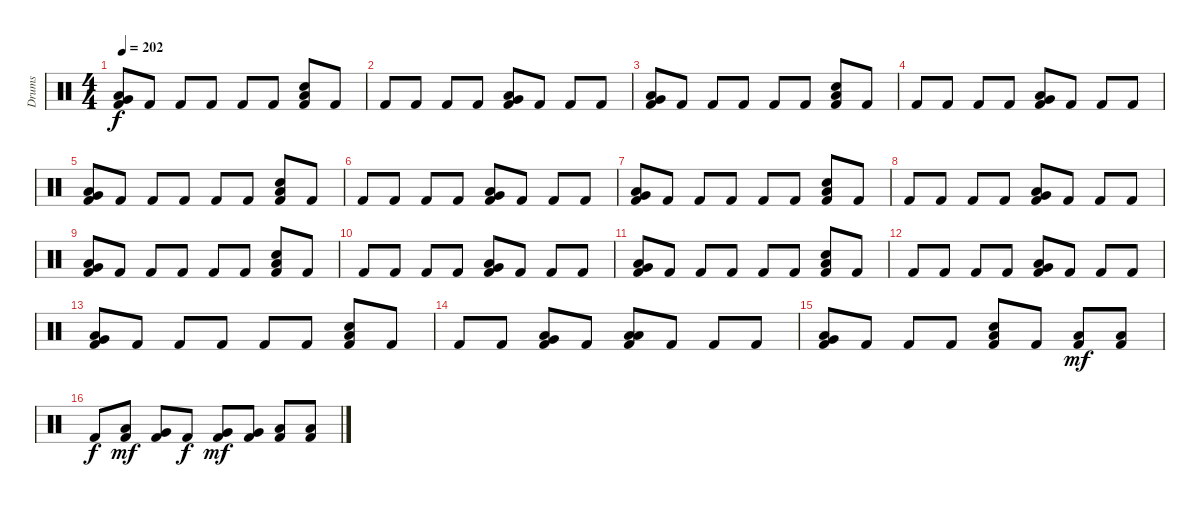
\track ("Drums" "Drums") {instrument percussion}
\staff {score}
\articulation defaults
\ts (4 4)
\tempo 202
\clef neutral
\ks c
("Very Low Tom (hit)" "Low Floor Tom (hit)" "Kick (hit) 2").8{dy f} "Kick (hit) 2".8 "Kick (hit) 2".8 "Kick (hit) 2".8 "Kick (hit) 2".8 "Kick (hit) 2".8 ("Low Tom (hit)" "Snare (hit) 2" "Kick (hit) 2").8 "Kick (hit) 2".8 |
"Kick (hit) 2".8 "Kick (hit) 2".8 "Kick (hit) 2".8 "Kick (hit) 2".8 ("Low Tom (hit)" "Very Low Tom (hit)" "Kick (hit) 2").8 "Kick (hit) 2".8 "Kick (hit) 2".8 "Kick (hit) 2".8 |
("Very Low Tom (hit)" "Low Floor Tom (hit)" "Kick (hit) 2").8 "Kick (hit) 2".8 "Kick (hit) 2".8 "Kick (hit) 2".8 "Kick (hit) 2".8 "Kick (hit) 2".8 ("Low Tom (hit)" "Snare (hit) 2" "Kick (hit) 2").8 "Kick (hit) 2".8 |
"Kick (hit) 2".8 "Kick (hit) 2".8 "Kick (hit) 2".8 "Kick (hit) 2".8 ("Low Tom (hit)" "Very Low Tom (hit)" "Kick (hit) 2").8 "Kick (hit) 2".8 "Kick (hit) 2".8 "Kick (hit) 2".8 |
("Very Low Tom (hit)" "Low Floor Tom (hit)" "Kick (hit) 2").8 "Kick (hit) 2".8 "Kick (hit) 2".8 "Kick (hit) 2".8 "Kick (hit) 2".8 "Kick (hit) 2".8 ("Low Tom (hit)" "Snare (hit) 2" "Kick (hit) 2").8 "Kick (hit) 2".8 |
"Kick (hit) 2".8 "Kick (hit) 2".8 "Kick (hit) 2".8 "Kick (hit) 2".8 ("Low Tom (hit)" "Very Low Tom (hit)" "Kick (hit) 2").8 "Kick (hit) 2".8 "Kick (hit) 2".8 "Kick (hit) 2".8 |
("Very Low Tom (hit)" "Low Floor Tom (hit)" "Kick (hit) 2").8 "Kick (hit) 2".8 "Kick (hit) 2".8 "Kick (hit) 2".8 "Kick (hit) 2".8 "Kick (hit) 2".8 ("Low Tom (hit)" "Snare (hit) 2" "Kick (hit) 2").8 "Kick (hit) 2".8 |
"Kick (hit) 2".8 "Kick (hit) 2".8 "Kick (hit) 2".8 "Kick (hit) 2".8 ("Low Tom (hit)" "Very Low Tom (hit)" "Kick (hit) 2").8 "Kick (hit) 2".8 "Kick (hit) 2".8 "Kick (hit) 2".8 |
("Very Low Tom (hit)" "Low Floor Tom (hit)" "Kick (hit) 2").8 "Kick (hit) 2".8 "Kick (hit) 2".8 "Kick (hit) 2".8 "Kick (hit) 2".8 "Kick (hit) 2".8 ("Low Tom (hit)" "Snare (hit) 2" "Kick (hit) 2").8 "Kick (hit) 2".8 |
"Kick (hit) 2".8 "Kick (hit) 2".8 "Kick (hit) 2".8 "Kick (hit) 2".8 ("Low Tom (hit)" "Very Low Tom (hit)" "Kick (hit) 2").8 "Kick (hit) 2".8 "Kick (hit) 2".8 "Kick (hit) 2".8 |
("Very Low Tom (hit)" "Low Floor Tom (hit)" "Kick (hit) 2").8 "Kick (hit) 2".8 "Kick (hit) 2".8 "Kick (hit) 2".8 "Kick (hit) 2".8 "Kick (hit) 2".8 ("Low Tom (hit)" "Snare (hit) 2" "Kick (hit) 2").8 "Kick (hit) 2".8 |
"Kick (hit) 2".8 "Kick (hit) 2".8 "Kick (hit) 2".8 "Kick (hit) 2".8 ("Low Tom (hit)" "Very Low Tom (hit)" "Kick (hit) 2").8 "Kick (hit) 2".8 "Kick (hit) 2".8 "Kick (hit) 2".8 |
("Very Low Tom (hit)" "Low Floor Tom (hit)" "Kick (hit) 2").8 "Kick (hit) 2".8 "Kick (hit) 2".8 "Kick (hit) 2".8 "Kick (hit) 2".8 "Kick (hit) 2".8 ("Low Tom (hit)" "Snare (hit) 2" "Kick (hit) 2").8 "Kick (hit) 2".8 |
"Kick (hit) 2".8 "Kick (hit) 2".8 ("Low Tom (hit)" "Very Low Tom (hit)" "Kick (hit) 2").8 "Kick (hit) 2".8 ("Low Tom (hit)" "Low Floor Tom (hit)" "Kick (hit) 2").8 "Kick (hit) 2".8 "Kick (hit) 2".8 "Kick (hit) 2".8 |
("Very Low Tom (hit)" "Low Floor Tom (hit)" "Kick (hit) 2").8 "Kick (hit) 2".8 "Kick (hit) 2".8 "Kick (hit) 2".8 ("Low Tom (hit)" "Snare (hit) 2" "Kick (hit) 2").8 "Kick (hit) 2".8 ("Low Tom (hit)" "Kick (hit) 2").8{dy mf} ("Low Tom (hit)" "Kick (hit) 2").8 |
"Kick (hit) 2".8{dy f} ("Low Tom (hit)" "Kick (hit) 2").8{dy mf} ("Very Low Tom (hit)" "Kick (hit) 2").8 "Kick (hit) 2".8{dy f} ("Very Low Tom (hit)" "Kick (hit) 2").8{dy mf} ("Very Low Tom (hit)" "Kick (hit) 2").8 ("Low Floor Tom (hit)" "Kick (hit) 2").8 ("Low Floor Tom (hit)" "Kick (hit) 2").8
